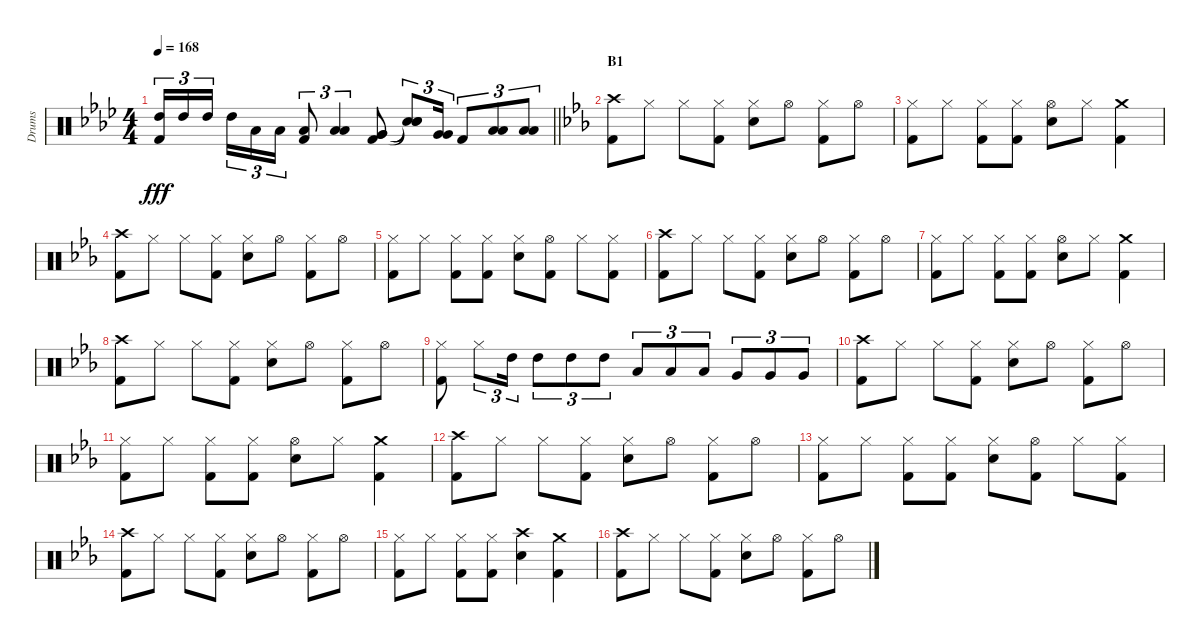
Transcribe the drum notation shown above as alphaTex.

\track ("Drums" "Drums") {instrument percussion}
\staff {score}
\articulation defaults
\ts (4 4)
\tempo 168
\clef neutral
\barLineRight lightlight
\ks fminor
("Kick (hit) 2" "High Tom (hit)").16{tu (3 2) dy fff} "High Tom (hit)".16{tu (3 2)} "High Tom (hit)".16{tu (3 2) beam splitsecondary} "High Tom (hit)".16{tu (3 2)} "Low Tom (hit)".16{tu (3 2)} "Low Tom (hit)".16{tu (3 2)} ("Kick (hit) 2" "Low Tom (hit)").8{tu (3 2)} ("Low Tom (hit)" "Low Tom (hit)").4{tu (3 2)} ("Kick (hit) 2" "Very Low Tom (hit)" "Very Low Tom (hit)").8 ("Snare (hit)"{t} "Snare (hit)"{t} "Snare (hit)"{t}).8{tu (3 2)} ("Very Low Tom (hit)" "Very Low Tom (hit)").16{tu (3 2)} "Kick (hit) 2".8{tu (3 2)} ("Low Floor Tom (hit)" "Low Floor Tom (hit)").8{tu (3 2)} ("Low Floor Tom (hit)" "Low Floor Tom (hit)").8{tu (3 2)} |
\section ("" "B1")
\ks cminor
("Crash high (hit)" "Kick (hit) 2").8 "Hi-Hat (closed)".8 "Hi-Hat (closed)".8 ("Hi-Hat (closed)" "Kick (hit) 2").8 ("Hi-Hat (closed)" "Snare (hit) 2").8 "Hi-Hat (open)".8 ("Hi-Hat (closed)" "Kick (hit) 2").8 "Hi-Hat (open)".8 |
("Hi-Hat (closed)" "Kick (hit) 2").8 "Hi-Hat (closed)".8 ("Hi-Hat (closed)" "Kick (hit) 2").8 ("Hi-Hat (closed)" "Kick (hit) 2").8 ("Hi-Hat (open)" "Snare (hit) 2").8 "Hi-Hat (closed)".8 ("Crash medium (hit)" "Kick (hit) 2").4 |
("Crash high (hit)" "Kick (hit) 2").8 "Hi-Hat (closed)".8 "Hi-Hat (closed)".8 ("Hi-Hat (closed)" "Kick (hit) 2").8 ("Hi-Hat (closed)" "Snare (hit) 2").8 "Hi-Hat (open)".8 ("Hi-Hat (closed)" "Kick (hit) 2").8 "Hi-Hat (open)".8 |
("Hi-Hat (closed)" "Kick (hit) 2").8 "Hi-Hat (closed)".8 ("Hi-Hat (closed)" "Kick (hit) 2").8 ("Hi-Hat (closed)" "Kick (hit) 2").8 ("Hi-Hat (closed)" "Snare (hit) 2").8 ("Hi-Hat (open)" "Kick (hit) 2").8 "Hi-Hat (closed)".8 ("Hi-Hat (closed)" "Kick (hit) 2").8 |
("Crash high (hit)" "Kick (hit) 2").8 "Hi-Hat (closed)".8 "Hi-Hat (closed)".8 ("Hi-Hat (closed)" "Kick (hit) 2").8 ("Hi-Hat (closed)" "Snare (hit) 2").8 "Hi-Hat (open)".8 ("Hi-Hat (closed)" "Kick (hit) 2").8 "Hi-Hat (open)".8 |
("Hi-Hat (closed)" "Kick (hit) 2").8 "Hi-Hat (closed)".8 ("Hi-Hat (closed)" "Kick (hit) 2").8 ("Hi-Hat (closed)" "Kick (hit) 2").8 ("Hi-Hat (open)" "Snare (hit) 2").8 "Hi-Hat (closed)".8 ("Crash medium (hit)" "Kick (hit) 2").4 |
("Crash high (hit)" "Kick (hit) 2").8 "Hi-Hat (closed)".8 "Hi-Hat (closed)".8 ("Hi-Hat (closed)" "Kick (hit) 2").8 ("Hi-Hat (closed)" "Snare (hit) 2").8 "Hi-Hat (open)".8 ("Hi-Hat (closed)" "Kick (hit) 2").8 "Hi-Hat (open)".8 |
("Hi-Hat (closed)" "Kick (hit) 2").8 "Hi-Hat (closed)".8{tu (3 2)} "High Tom (hit)".16{tu (3 2)} "High Tom (hit)".8{tu (3 2)} "High Tom (hit)".8{tu (3 2)} "High Tom (hit)".8{tu (3 2)} "Low Tom (hit)".8{tu (3 2)} "Low Tom (hit)".8{tu (3 2)} "Low Tom (hit)".8{tu (3 2)} "Very Low Tom (hit)".8{tu (3 2)} "Very Low Tom (hit)".8{tu (3 2)} "Very Low Tom (hit)".8{tu (3 2)} |
("Crash high (hit)" "Kick (hit) 2").8 "Hi-Hat (closed)".8 "Hi-Hat (closed)".8 ("Hi-Hat (closed)" "Kick (hit) 2").8 ("Hi-Hat (closed)" "Snare (hit) 2").8 "Hi-Hat (open)".8 ("Hi-Hat (closed)" "Kick (hit) 2").8 "Hi-Hat (open)".8 |
("Hi-Hat (closed)" "Kick (hit) 2").8 "Hi-Hat (closed)".8 ("Hi-Hat (closed)" "Kick (hit) 2").8 ("Hi-Hat (closed)" "Kick (hit) 2").8 ("Hi-Hat (open)" "Snare (hit) 2").8 "Hi-Hat (closed)".8 ("Crash medium (hit)" "Kick (hit) 2").4 |
("Crash high (hit)" "Kick (hit) 2").8 "Hi-Hat (closed)".8 "Hi-Hat (closed)".8 ("Hi-Hat (closed)" "Kick (hit) 2").8 ("Hi-Hat (closed)" "Snare (hit) 2").8 "Hi-Hat (open)".8 ("Hi-Hat (closed)" "Kick (hit) 2").8 "Hi-Hat (open)".8 |
("Hi-Hat (closed)" "Kick (hit) 2").8 "Hi-Hat (closed)".8 ("Hi-Hat (closed)" "Kick (hit) 2").8 ("Hi-Hat (closed)" "Kick (hit) 2").8 ("Hi-Hat (closed)" "Snare (hit) 2").8 ("Hi-Hat (open)" "Kick (hit) 2").8 "Hi-Hat (closed)".8 ("Hi-Hat (closed)" "Kick (hit) 2").8 |
("Crash high (hit)" "Kick (hit) 2").8 "Hi-Hat (closed)".8 "Hi-Hat (closed)".8 ("Hi-Hat (closed)" "Kick (hit) 2").8 ("Hi-Hat (closed)" "Snare (hit) 2").8 "Hi-Hat (open)".8 ("Hi-Hat (closed)" "Kick (hit) 2").8 "Hi-Hat (open)".8 |
("Hi-Hat (closed)" "Kick (hit) 2").8 "Hi-Hat (closed)".8 ("Hi-Hat (closed)" "Kick (hit) 2").8 ("Hi-Hat (closed)" "Kick (hit) 2").8 ("Crash high (hit)" "Snare (hit) 2").4 ("Crash medium (hit)" "Kick (hit) 2").4 |
("Crash high (hit)" "Kick (hit) 2").8 "Hi-Hat (closed)".8 "Hi-Hat (closed)".8 ("Hi-Hat (closed)" "Kick (hit) 2").8 ("Hi-Hat (closed)" "Snare (hit) 2").8 "Hi-Hat (open)".8 ("Hi-Hat (closed)" "Kick (hit) 2").8 "Hi-Hat (open)".8
